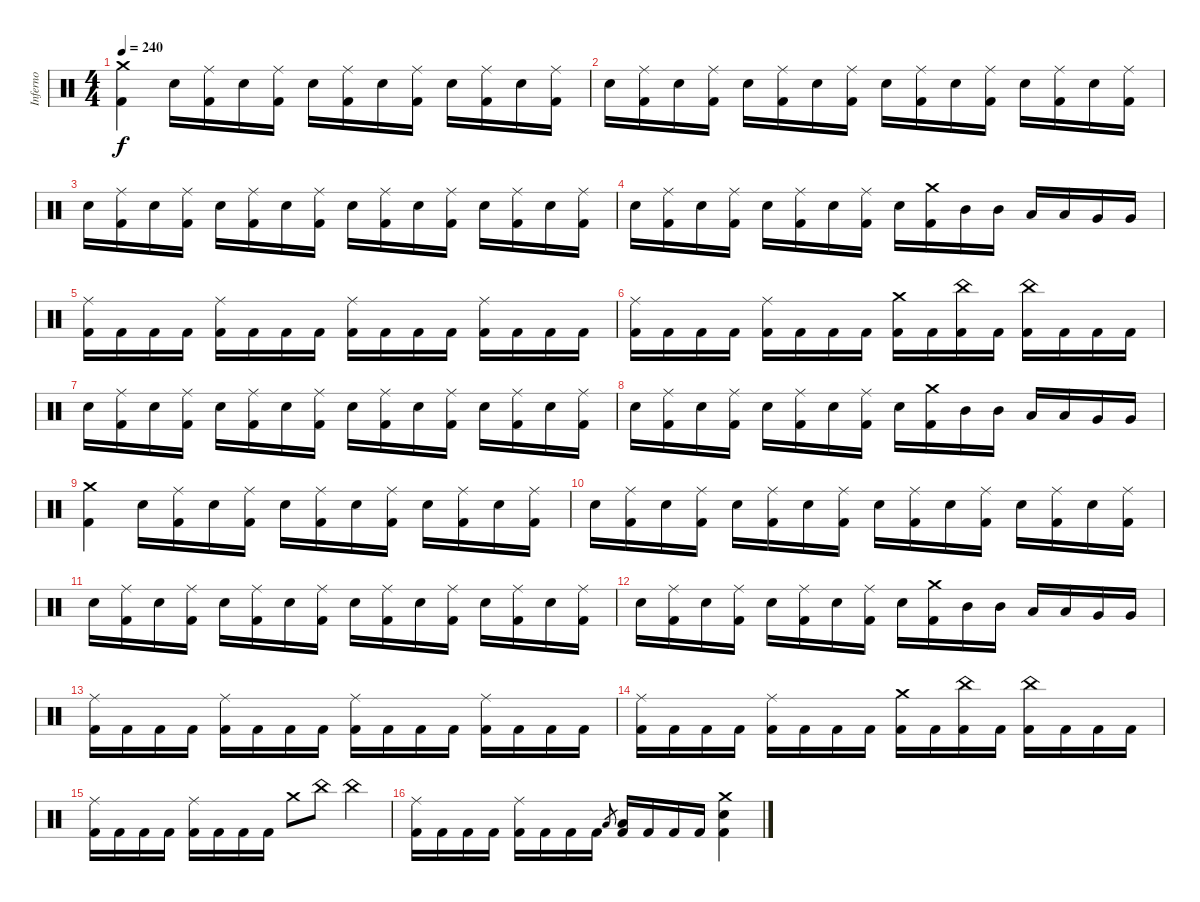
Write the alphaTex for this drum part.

\track ("Inferno" "Inferno") {instrument percussion}
\staff {score}
\articulation defaults
\ts (4 4)
\tempo 240
\clef neutral
\ks c
("Crash medium (hit)" "Kick (hit) 2").4{dy f} "Snare (hit) 2".16 ("Ride (middle)" "Kick (hit) 2").16 "Snare (hit) 2".16 ("Ride (middle)" "Kick (hit) 2").16 "Snare (hit) 2".16 ("Ride (middle)" "Kick (hit) 2").16 "Snare (hit) 2".16 ("Ride (middle)" "Kick (hit) 2").16 "Snare (hit) 2".16 ("Ride (middle)" "Kick (hit) 2").16 "Snare (hit) 2".16 ("Ride (middle)" "Kick (hit) 2").16 |
"Snare (hit) 2".16 ("Ride (middle)" "Kick (hit) 2").16 "Snare (hit) 2".16 ("Ride (middle)" "Kick (hit) 2").16 "Snare (hit) 2".16 ("Ride (middle)" "Kick (hit) 2").16 "Snare (hit) 2".16 ("Ride (middle)" "Kick (hit) 2").16 "Snare (hit) 2".16 ("Ride (middle)" "Kick (hit) 2").16 "Snare (hit) 2".16 ("Ride (middle)" "Kick (hit) 2").16 "Snare (hit) 2".16 ("Ride (middle)" "Kick (hit) 2").16 "Snare (hit) 2".16 ("Ride (middle)" "Kick (hit) 2").16 |
"Snare (hit) 2".16 ("Ride (middle)" "Kick (hit) 2").16 "Snare (hit) 2".16 ("Ride (middle)" "Kick (hit) 2").16 "Snare (hit) 2".16 ("Ride (middle)" "Kick (hit) 2").16 "Snare (hit) 2".16 ("Ride (middle)" "Kick (hit) 2").16 "Snare (hit) 2".16 ("Ride (middle)" "Kick (hit) 2").16 "Snare (hit) 2".16 ("Ride (middle)" "Kick (hit) 2").16 "Snare (hit) 2".16 ("Ride (middle)" "Kick (hit) 2").16 "Snare (hit) 2".16 ("Ride (middle)" "Kick (hit) 2").16 |
"Snare (hit) 2".16 ("Ride (middle)" "Kick (hit) 2").16 "Snare (hit) 2".16 ("Ride (middle)" "Kick (hit) 2").16 "Snare (hit) 2".16 ("Ride (middle)" "Kick (hit) 2").16 "Snare (hit) 2".16 ("Ride (middle)" "Kick (hit) 2").16 "Snare (hit) 2".16 ("Crash medium (hit)" "Kick (hit) 2").16 "Mid Tom (hit)".16 "Mid Tom (hit)".16 "Low Tom (hit)".16 "Low Tom (hit)".16 "Very Low Tom (hit)".16 "Very Low Tom (hit)".16 |
("Ride (middle)" "Kick (hit) 2").16 "Kick (hit) 2".16 "Kick (hit) 2".16 "Kick (hit) 2".16 ("Ride (middle)" "Kick (hit) 2").16 "Kick (hit) 2".16 "Kick (hit) 2".16 "Kick (hit) 2".16 ("Ride (middle)" "Kick (hit) 2").16 "Kick (hit) 2".16 "Kick (hit) 2".16 "Kick (hit) 2".16 ("Ride (middle)" "Kick (hit) 2").16 "Kick (hit) 2".16 "Kick (hit) 2".16 "Kick (hit) 2".16 |
("Ride (middle)" "Kick (hit) 2").16 "Kick (hit) 2".16 "Kick (hit) 2".16 "Kick (hit) 2".16 ("Ride (middle)" "Kick (hit) 2").16 "Kick (hit) 2".16 "Kick (hit) 2".16 "Kick (hit) 2".16 ("Crash medium (hit)" "Kick (hit) 2").16 "Kick (hit) 2".16 ("China (hit)" "Kick (hit) 2").16 "Kick (hit) 2".16 ("China (hit)" "Kick (hit) 2").16 "Kick (hit) 2".16 "Kick (hit) 2".16 "Kick (hit) 2".16 |
"Snare (hit) 2".16 ("Ride (middle)" "Kick (hit) 2").16 "Snare (hit) 2".16 ("Ride (middle)" "Kick (hit) 2").16 "Snare (hit) 2".16 ("Ride (middle)" "Kick (hit) 2").16 "Snare (hit) 2".16 ("Ride (middle)" "Kick (hit) 2").16 "Snare (hit) 2".16 ("Ride (middle)" "Kick (hit) 2").16 "Snare (hit) 2".16 ("Ride (middle)" "Kick (hit) 2").16 "Snare (hit) 2".16 ("Ride (middle)" "Kick (hit) 2").16 "Snare (hit) 2".16 ("Ride (middle)" "Kick (hit) 2").16 |
"Snare (hit) 2".16 ("Ride (middle)" "Kick (hit) 2").16 "Snare (hit) 2".16 ("Ride (middle)" "Kick (hit) 2").16 "Snare (hit) 2".16 ("Ride (middle)" "Kick (hit) 2").16 "Snare (hit) 2".16 ("Ride (middle)" "Kick (hit) 2").16 "Snare (hit) 2".16 ("Crash medium (hit)" "Kick (hit) 2").16 "Mid Tom (hit)".16 "Mid Tom (hit)".16 "Low Tom (hit)".16 "Low Tom (hit)".16 "Very Low Tom (hit)".16 "Very Low Tom (hit)".16 |
("Crash medium (hit)" "Kick (hit) 2").4 "Snare (hit) 2".16 ("Ride (middle)" "Kick (hit) 2").16 "Snare (hit) 2".16 ("Ride (middle)" "Kick (hit) 2").16 "Snare (hit) 2".16 ("Ride (middle)" "Kick (hit) 2").16 "Snare (hit) 2".16 ("Ride (middle)" "Kick (hit) 2").16 "Snare (hit) 2".16 ("Ride (middle)" "Kick (hit) 2").16 "Snare (hit) 2".16 ("Ride (middle)" "Kick (hit) 2").16 |
"Snare (hit) 2".16 ("Ride (middle)" "Kick (hit) 2").16 "Snare (hit) 2".16 ("Ride (middle)" "Kick (hit) 2").16 "Snare (hit) 2".16 ("Ride (middle)" "Kick (hit) 2").16 "Snare (hit) 2".16 ("Ride (middle)" "Kick (hit) 2").16 "Snare (hit) 2".16 ("Ride (middle)" "Kick (hit) 2").16 "Snare (hit) 2".16 ("Ride (middle)" "Kick (hit) 2").16 "Snare (hit) 2".16 ("Ride (middle)" "Kick (hit) 2").16 "Snare (hit) 2".16 ("Ride (middle)" "Kick (hit) 2").16 |
"Snare (hit) 2".16 ("Ride (middle)" "Kick (hit) 2").16 "Snare (hit) 2".16 ("Ride (middle)" "Kick (hit) 2").16 "Snare (hit) 2".16 ("Ride (middle)" "Kick (hit) 2").16 "Snare (hit) 2".16 ("Ride (middle)" "Kick (hit) 2").16 "Snare (hit) 2".16 ("Ride (middle)" "Kick (hit) 2").16 "Snare (hit) 2".16 ("Ride (middle)" "Kick (hit) 2").16 "Snare (hit) 2".16 ("Ride (middle)" "Kick (hit) 2").16 "Snare (hit) 2".16 ("Ride (middle)" "Kick (hit) 2").16 |
"Snare (hit) 2".16 ("Ride (middle)" "Kick (hit) 2").16 "Snare (hit) 2".16 ("Ride (middle)" "Kick (hit) 2").16 "Snare (hit) 2".16 ("Ride (middle)" "Kick (hit) 2").16 "Snare (hit) 2".16 ("Ride (middle)" "Kick (hit) 2").16 "Snare (hit) 2".16 ("Crash medium (hit)" "Kick (hit) 2").16 "Mid Tom (hit)".16 "Mid Tom (hit)".16 "Low Tom (hit)".16 "Low Tom (hit)".16 "Very Low Tom (hit)".16 "Very Low Tom (hit)".16 |
("Ride (middle)" "Kick (hit) 2").16 "Kick (hit) 2".16 "Kick (hit) 2".16 "Kick (hit) 2".16 ("Ride (middle)" "Kick (hit) 2").16 "Kick (hit) 2".16 "Kick (hit) 2".16 "Kick (hit) 2".16 ("Ride (middle)" "Kick (hit) 2").16 "Kick (hit) 2".16 "Kick (hit) 2".16 "Kick (hit) 2".16 ("Ride (middle)" "Kick (hit) 2").16 "Kick (hit) 2".16 "Kick (hit) 2".16 "Kick (hit) 2".16 |
("Ride (middle)" "Kick (hit) 2").16 "Kick (hit) 2".16 "Kick (hit) 2".16 "Kick (hit) 2".16 ("Ride (middle)" "Kick (hit) 2").16 "Kick (hit) 2".16 "Kick (hit) 2".16 "Kick (hit) 2".16 ("Crash medium (hit)" "Kick (hit) 2").16 "Kick (hit) 2".16 ("China (hit)" "Kick (hit) 2").16 "Kick (hit) 2".16 ("China (hit)" "Kick (hit) 2").16 "Kick (hit) 2".16 "Kick (hit) 2".16 "Kick (hit) 2".16 |
("Ride (middle)" "Kick (hit) 2").16 "Kick (hit) 2".16 "Kick (hit) 2".16 "Kick (hit) 2".16 ("Ride (middle)" "Kick (hit) 2").16 "Kick (hit) 2".16 "Kick (hit) 2".16 "Kick (hit) 2".16 "Crash medium (hit)".8 "China (hit)".8 "China (hit)".4 |
("Ride (middle)" "Kick (hit) 2").16 "Kick (hit) 2".16 "Kick (hit) 2".16 "Kick (hit) 2".16 ("Ride (middle)" "Kick (hit) 2").16 "Kick (hit) 2".16 "Kick (hit) 2".16 "Kick (hit) 2".16 "Low Floor Tom (hit)".8{gr} ("Low Floor Tom (hit)" "Kick (hit) 2").16 "Kick (hit) 2".16 "Kick (hit) 2".16 "Kick (hit) 2".16 ("Crash medium (hit)" "Snare (hit) 2" "Kick (hit) 2").4
